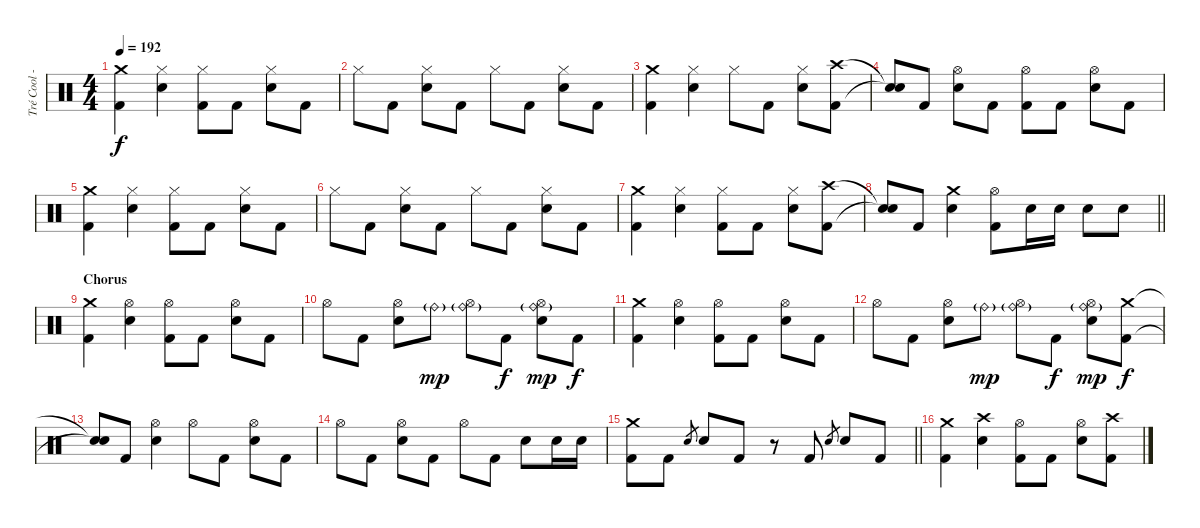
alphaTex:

\track ("Tré Cool - Drums" "Tré Cool -") {instrument percussion}
\staff {score}
\articulation defaults
\ts (4 4)
\tempo 192
\clef neutral
\ks c
("Crash medium (hit)" "Kick (hit) 2").4{dy f} ("Hi-Hat (closed)" "Electric Snare (hit)").4 ("Hi-Hat (closed)" "Kick (hit) 2").8 "Kick (hit) 2".8 ("Hi-Hat (closed)" "Electric Snare (hit)").8 "Kick (hit) 2".8 |
"Hi-Hat (closed)".8 "Kick (hit) 2".8 ("Hi-Hat (closed)" "Electric Snare (hit)").8 "Kick (hit) 2".8 "Hi-Hat (closed)".8 "Kick (hit) 2".8 ("Hi-Hat (closed)" "Electric Snare (hit)").8 "Kick (hit) 2".8 |
("Crash medium (hit)" "Kick (hit) 2").4 ("Hi-Hat (closed)" "Electric Snare (hit)").4 "Hi-Hat (closed)".8 "Kick (hit) 2".8 ("Hi-Hat (closed)" "Electric Snare (hit)").8 ("Crash high (hit)" "Kick (hit) 2").8 |
("Snare (hit)"{t} "Snare (hit)"{t}).8 "Kick (hit) 2".8 ("Hi-Hat (open)" "Electric Snare (hit)").8 "Kick (hit) 2".8 ("Hi-Hat (open)" "Kick (hit) 2").8 "Kick (hit) 2".8 ("Hi-Hat (open)" "Electric Snare (hit)").8 "Kick (hit) 2".8 |
("Crash medium (hit)" "Kick (hit) 2").4 ("Hi-Hat (closed)" "Electric Snare (hit)").4 ("Hi-Hat (closed)" "Kick (hit) 2").8 "Kick (hit) 2".8 ("Hi-Hat (closed)" "Electric Snare (hit)").8 "Kick (hit) 2".8 |
"Hi-Hat (closed)".8 "Kick (hit) 2".8 ("Hi-Hat (closed)" "Electric Snare (hit)").8 "Kick (hit) 2".8 "Hi-Hat (closed)".8 "Kick (hit) 2".8 ("Hi-Hat (closed)" "Electric Snare (hit)").8 "Kick (hit) 2".8 |
("Crash medium (hit)" "Kick (hit) 2").4 ("Hi-Hat (closed)" "Electric Snare (hit)").4 ("Hi-Hat (closed)" "Kick (hit) 2").8 "Kick (hit) 2".8 ("Hi-Hat (closed)" "Electric Snare (hit)").8 ("Crash high (hit)" "Kick (hit) 2").8 |
\barLineRight lightlight
("Snare (hit)"{t} "Snare (hit)"{t}).8 "Kick (hit) 2".8 ("Crash medium (hit)" "Electric Snare (hit)").4 ("Hi-Hat (open)" "Kick (hit) 2").8 "Electric Snare (hit)".16 "Electric Snare (hit)".16 "Electric Snare (hit)".8 "Electric Snare (hit)".8 |
\section ("" "Chorus")
("Crash medium (hit)" "Kick (hit) 2").4 ("Hi-Hat (open)" "Electric Snare (hit)").4 ("Hi-Hat (open)" "Kick (hit) 2").8 "Kick (hit) 2".8 ("Hi-Hat (open)" "Electric Snare (hit)").8 "Kick (hit) 2".8 |
"Hi-Hat (open)".8 "Kick (hit) 2".8 ("Hi-Hat (open)" "Electric Snare (hit)").8 "Ride (bell)"{g}.8{dy mp} ("Hi-Hat (open)" "Ride (bell)"{g}).8 "Kick (hit) 2".8{dy f} ("Hi-Hat (open)" "Ride (bell)"{g} "Electric Snare (hit)").8{dy mp} "Kick (hit) 2".8{dy f} |
("Crash medium (hit)" "Kick (hit) 2").4 ("Hi-Hat (open)" "Electric Snare (hit)").4 ("Hi-Hat (open)" "Kick (hit) 2").8 "Kick (hit) 2".8 ("Hi-Hat (open)" "Electric Snare (hit)").8 "Kick (hit) 2".8 |
"Hi-Hat (open)".8 "Kick (hit) 2".8 ("Hi-Hat (open)" "Electric Snare (hit)").8 "Ride (bell)"{g}.8{dy mp} ("Hi-Hat (open)" "Ride (bell)"{g}).8 "Kick (hit) 2".8{dy f} ("Hi-Hat (open)" "Ride (bell)"{g} "Electric Snare (hit)").8{dy mp} ("Crash medium (hit)" "Kick (hit) 2").8{dy f} |
("Snare (hit)"{t} "Snare (hit)"{t}).8 "Kick (hit) 2".8 ("Hi-Hat (open)" "Electric Snare (hit)").4 "Hi-Hat (open)".8 "Kick (hit) 2".8 ("Hi-Hat (open)" "Electric Snare (hit)").8 "Kick (hit) 2".8 |
"Hi-Hat (open)".8 "Kick (hit) 2".8 ("Hi-Hat (open)" "Electric Snare (hit)").8 "Kick (hit) 2".8 "Hi-Hat (open)".8 "Kick (hit) 2".8 "Electric Snare (hit)".8 "Electric Snare (hit)".16 "Electric Snare (hit)".16 |
\barLineRight lightlight
("Crash medium (hit)" "Kick (hit) 2").8 "Kick (hit) 2".8 "Electric Snare (hit)".8{gr} "Electric Snare (hit)".8 "Kick (hit) 2".8 r.8 "Kick (hit) 2".8 "Electric Snare (hit)".8{gr} "Electric Snare (hit)".8 "Kick (hit) 2".8 |
("Crash medium (hit)" "Kick (hit) 2").4 ("Crash high (hit)" "Electric Snare (hit)").4 ("Hi-Hat (open)" "Kick (hit) 2").8 "Kick (hit) 2".8 ("Hi-Hat (open)" "Electric Snare (hit)").8 ("Crash high (hit)" "Kick (hit) 2").8
